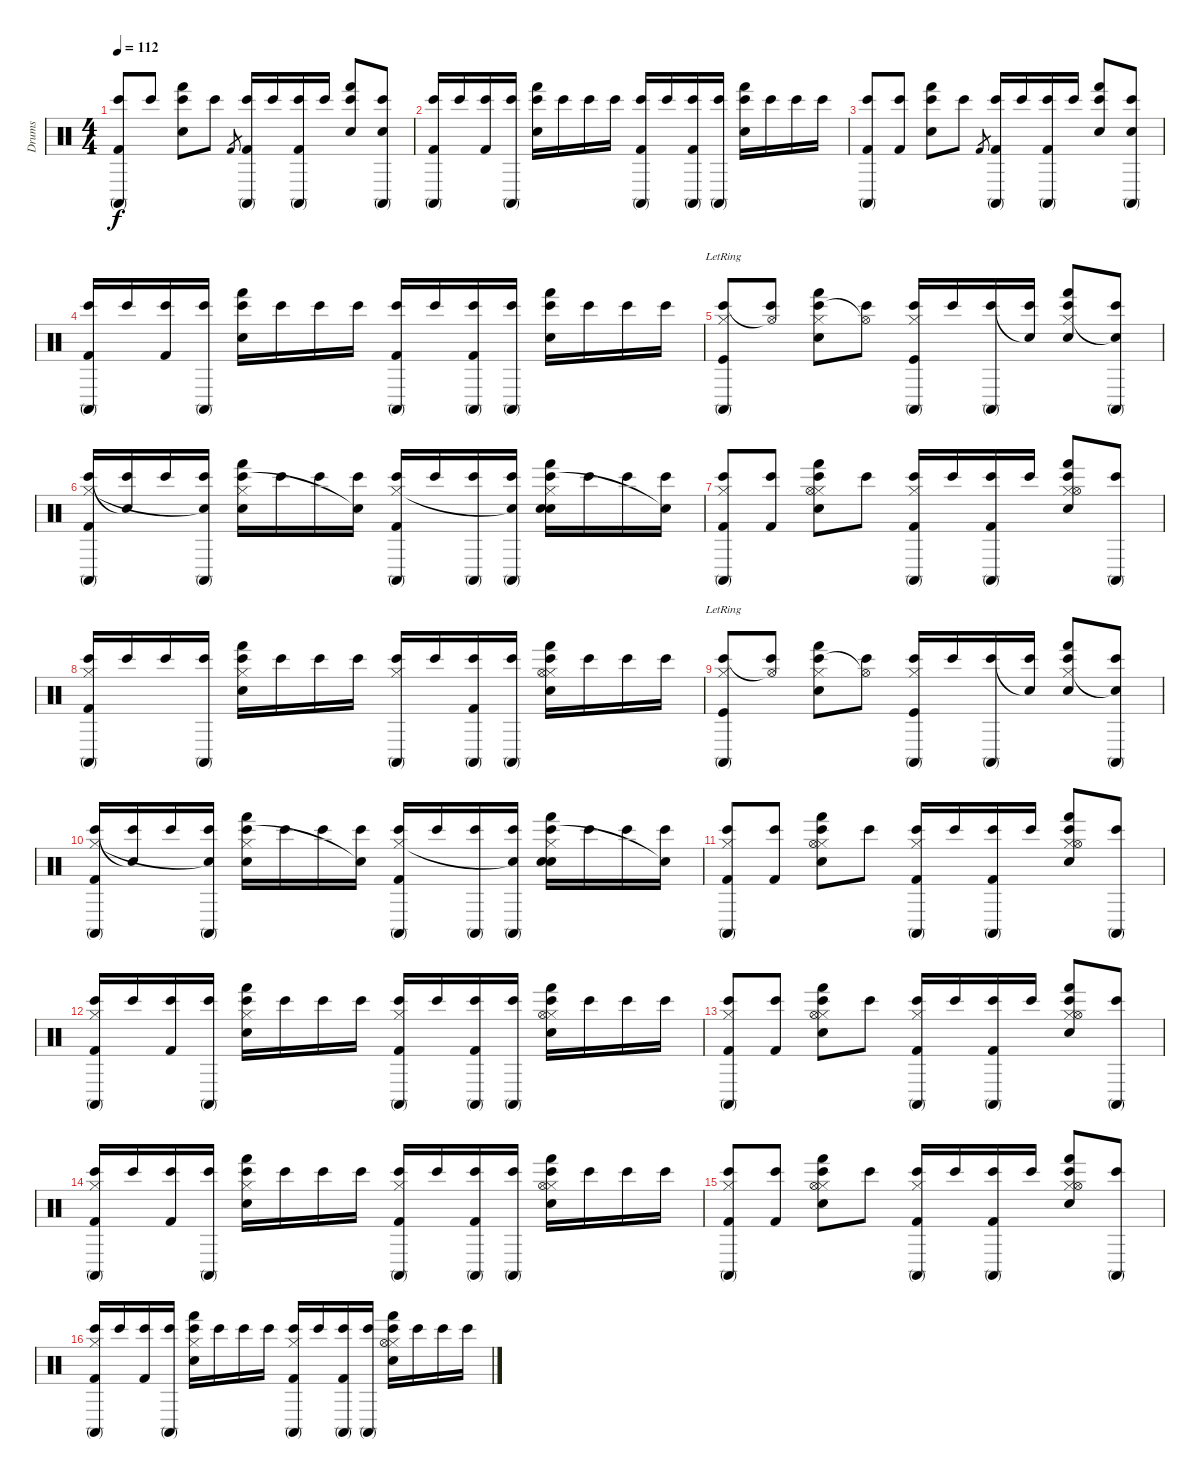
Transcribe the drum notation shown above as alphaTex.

\track ("Drums" "Drums") {instrument percussion}
\staff {score}
\articulation defaults
\ts (4 4)
\tempo 112
\clef neutral
\ks c
("Conga high (mute)" "Bongo High (hit)" "Kick (hit) 2").8{dy f} "Bongo High (hit)".8 ("Hand (hit)" "Bongo High (hit)" "Snare (hit) 2").8 "Bongo High (hit)".8 "Kick (hit) 2".8{gr} ("Conga high (mute)" "Bongo High (hit)" "Kick (hit) 2").16 "Bongo High (hit)".16 ("Conga high (mute)" "Bongo High (hit)" "Kick (hit) 2").16 "Bongo High (hit)".16 ("Hand (hit)" "Bongo High (hit)" "Snare (hit) 2").8 ("Conga high (mute)" "Bongo High (hit)" "Snare (hit) 2").8 |
("Conga high (mute)" "Bongo High (hit)" "Kick (hit) 2").16 "Bongo High (hit)".16 ("Bongo High (hit)" "Kick (hit) 2").16 ("Conga high (mute)" "Bongo High (hit)").16 ("Hand (hit)" "Bongo High (hit)" "Snare (hit) 2").16 "Bongo High (hit)".16 "Bongo High (hit)".16 "Bongo High (hit)".16 ("Conga high (mute)" "Bongo High (hit)" "Kick (hit) 2").16 "Bongo High (hit)".16 ("Conga high (mute)" "Bongo High (hit)" "Kick (hit) 2").16 ("Conga high (mute)" "Bongo High (hit)").16 ("Hand (hit)" "Bongo High (hit)" "Snare (hit) 2").16 "Bongo High (hit)".16 "Bongo High (hit)".16 "Bongo High (hit)".16 |
("Conga high (mute)" "Bongo High (hit)" "Kick (hit) 2").8 ("Bongo High (hit)" "Kick (hit) 2").8 ("Hand (hit)" "Bongo High (hit)" "Snare (hit) 2").8 "Bongo High (hit)".8 "Kick (hit) 2".8{gr} ("Conga high (mute)" "Bongo High (hit)" "Kick (hit) 2").16 "Bongo High (hit)".16 ("Conga high (mute)" "Bongo High (hit)" "Kick (hit) 2").16 "Bongo High (hit)".16 ("Hand (hit)" "Bongo High (hit)" "Snare (hit) 2").8 ("Conga high (mute)" "Bongo High (hit)" "Snare (hit) 2").8 |
("Conga high (mute)" "Bongo High (hit)" "Kick (hit) 2").16 "Bongo High (hit)".16 ("Bongo High (hit)" "Kick (hit) 2").16 ("Conga high (mute)" "Bongo High (hit)").16 ("Hand (hit)" "Bongo High (hit)" "Snare (hit) 2").16 "Bongo High (hit)".16 "Bongo High (hit)".16 "Bongo High (hit)".16 ("Conga high (mute)" "Bongo High (hit)" "Kick (hit) 2").16 "Bongo High (hit)".16 ("Conga high (mute)" "Bongo High (hit)" "Kick (hit) 2").16 ("Conga high (mute)" "Bongo High (hit)").16 ("Hand (hit)" "Bongo High (hit)" "Snare (hit) 2").16 "Bongo High (hit)".16 "Bongo High (hit)".16 "Bongo High (hit)".16 |
("Conga high (mute)" "Bongo High (hit)" "Hi-Hat (closed)"{lr} "Kick (hit)").8 ("Bongo High (hit)" "Hi-Hat (open)"{t}).8 ("Hand (hit)" "Bongo High (hit)" "Hi-Hat (closed)" "Snare (hit) 2").8 ("Bongo High (hit)" "Hi-Hat (open)"{t}).8 ("Conga high (mute)" "Bongo High (hit)" "Hi-Hat (closed)" "Kick (hit)").16 "Bongo High (hit)".16 ("Conga high (mute)" "Bongo High (hit)").16 ("Bongo High (hit)" "Snare (hit)"{t}).16 ("Hand (hit)" "Bongo High (hit)" "Hi-Hat (closed)" "Snare (hit) 2").8 ("Conga high (mute)" "Bongo High (hit)" "Snare (hit)"{t}).8 |
("Conga high (mute)" "Bongo High (hit)" "Hi-Hat (closed)" "Kick (hit) 2").16 ("Bongo High (hit)" "Snare (hit)"{t}).16 "Bongo High (hit)".16 ("Conga high (mute)" "Bongo High (hit)" "Snare (hit)"{t}).16 ("Hand (hit)" "Bongo High (hit)" "Hi-Hat (closed)" "Snare (hit) 2").16 "Bongo High (hit)".16 "Bongo High (hit)".16 ("Bongo High (hit)" "Snare (hit)"{t}).16 ("Conga high (mute)" "Bongo High (hit)" "Hi-Hat (closed)" "Kick (hit) 2").16 "Bongo High (hit)".16 ("Conga high (mute)" "Bongo High (hit)").16 ("Conga high (mute)" "Bongo High (hit)" "Snare (hit)"{t}).16 ("Hand (hit)" "Bongo High (hit)" "Hi-Hat (closed)" "Electric Snare (hit)" "Snare (hit) 2").16 "Bongo High (hit)".16 "Bongo High (hit)".16 ("Bongo High (hit)" "Snare (hit)"{t}).16 |
("Conga high (mute)" "Bongo High (hit)" "Hi-Hat (closed)" "Kick (hit) 2").8 ("Bongo High (hit)" "Kick (hit) 2").8 ("Hand (hit)" "Bongo High (hit)" "Hi-Hat (closed)" "Hi-Hat (open)" "Snare (hit) 2").8 "Bongo High (hit)".8 ("Conga high (mute)" "Bongo High (hit)" "Hi-Hat (closed)" "Kick (hit) 2").16 "Bongo High (hit)".16 ("Conga high (mute)" "Bongo High (hit)" "Kick (hit) 2").16 "Bongo High (hit)".16 ("Hand (hit)" "Bongo High (hit)" "Hi-Hat (closed)" "Hi-Hat (open)" "Snare (hit) 2").8 ("Conga high (mute)" "Bongo High (hit)").8 |
("Conga high (mute)" "Bongo High (hit)" "Hi-Hat (closed)" "Kick (hit) 2").16 "Bongo High (hit)".16 "Bongo High (hit)".16 ("Conga high (mute)" "Bongo High (hit)").16 ("Hand (hit)" "Bongo High (hit)" "Hi-Hat (closed)" "Snare (hit) 2").16 "Bongo High (hit)".16 "Bongo High (hit)".16 "Bongo High (hit)".16 ("Conga high (mute)" "Bongo High (hit)" "Hi-Hat (closed)").16 "Bongo High (hit)".16 ("Conga high (mute)" "Bongo High (hit)" "Kick (hit) 2").16 ("Conga high (mute)" "Bongo High (hit)").16 ("Hand (hit)" "Bongo High (hit)" "Hi-Hat (closed)" "Hi-Hat (open)" "Snare (hit) 2").16 "Bongo High (hit)".16 "Bongo High (hit)".16 "Bongo High (hit)".16 |
("Conga high (mute)" "Bongo High (hit)" "Hi-Hat (closed)"{lr} "Kick (hit)").8 ("Bongo High (hit)" "Hi-Hat (open)"{t}).8 ("Hand (hit)" "Bongo High (hit)" "Hi-Hat (closed)" "Snare (hit) 2").8 ("Bongo High (hit)" "Hi-Hat (open)"{t}).8 ("Conga high (mute)" "Bongo High (hit)" "Hi-Hat (closed)" "Kick (hit)").16 "Bongo High (hit)".16 ("Conga high (mute)" "Bongo High (hit)").16 ("Bongo High (hit)" "Snare (hit)"{t}).16 ("Hand (hit)" "Bongo High (hit)" "Hi-Hat (closed)" "Snare (hit) 2").8 ("Conga high (mute)" "Bongo High (hit)" "Snare (hit)"{t}).8 |
("Conga high (mute)" "Bongo High (hit)" "Hi-Hat (closed)" "Kick (hit) 2").16 ("Bongo High (hit)" "Snare (hit)"{t}).16 "Bongo High (hit)".16 ("Conga high (mute)" "Bongo High (hit)" "Snare (hit)"{t}).16 ("Hand (hit)" "Bongo High (hit)" "Hi-Hat (closed)" "Snare (hit) 2").16 "Bongo High (hit)".16 "Bongo High (hit)".16 ("Bongo High (hit)" "Snare (hit)"{t}).16 ("Conga high (mute)" "Bongo High (hit)" "Hi-Hat (closed)" "Kick (hit) 2").16 "Bongo High (hit)".16 ("Conga high (mute)" "Bongo High (hit)").16 ("Conga high (mute)" "Bongo High (hit)" "Snare (hit)"{t}).16 ("Hand (hit)" "Bongo High (hit)" "Hi-Hat (closed)" "Electric Snare (hit)" "Snare (hit) 2").16 "Bongo High (hit)".16 "Bongo High (hit)".16 ("Bongo High (hit)" "Snare (hit)"{t}).16 |
("Conga high (mute)" "Bongo High (hit)" "Hi-Hat (closed)" "Kick (hit) 2").8 ("Bongo High (hit)" "Kick (hit) 2").8 ("Hand (hit)" "Bongo High (hit)" "Hi-Hat (closed)" "Hi-Hat (open)" "Snare (hit) 2").8 "Bongo High (hit)".8 ("Conga high (mute)" "Bongo High (hit)" "Hi-Hat (closed)" "Kick (hit) 2").16 "Bongo High (hit)".16 ("Conga high (mute)" "Bongo High (hit)" "Kick (hit) 2").16 "Bongo High (hit)".16 ("Hand (hit)" "Bongo High (hit)" "Hi-Hat (closed)" "Hi-Hat (open)" "Snare (hit) 2").8 ("Conga high (mute)" "Bongo High (hit)").8 |
("Conga high (mute)" "Bongo High (hit)" "Hi-Hat (closed)" "Kick (hit) 2").16 "Bongo High (hit)".16 ("Bongo High (hit)" "Kick (hit) 2").16 ("Conga high (mute)" "Bongo High (hit)").16 ("Hand (hit)" "Bongo High (hit)" "Hi-Hat (closed)" "Snare (hit) 2").16 "Bongo High (hit)".16 "Bongo High (hit)".16 "Bongo High (hit)".16 ("Conga high (mute)" "Bongo High (hit)" "Hi-Hat (closed)" "Kick (hit) 2").16 "Bongo High (hit)".16 ("Conga high (mute)" "Bongo High (hit)" "Kick (hit) 2").16 ("Conga high (mute)" "Bongo High (hit)").16 ("Hand (hit)" "Bongo High (hit)" "Hi-Hat (closed)" "Hi-Hat (open)" "Snare (hit) 2").16 "Bongo High (hit)".16 "Bongo High (hit)".16 "Bongo High (hit)".16 |
("Conga high (mute)" "Bongo High (hit)" "Hi-Hat (closed)" "Kick (hit) 2").8 ("Bongo High (hit)" "Kick (hit) 2").8 ("Hand (hit)" "Bongo High (hit)" "Hi-Hat (closed)" "Hi-Hat (open)" "Snare (hit) 2").8 "Bongo High (hit)".8 ("Conga high (mute)" "Bongo High (hit)" "Hi-Hat (closed)" "Kick (hit) 2").16 "Bongo High (hit)".16 ("Conga high (mute)" "Bongo High (hit)" "Kick (hit) 2").16 "Bongo High (hit)".16 ("Hand (hit)" "Bongo High (hit)" "Hi-Hat (closed)" "Hi-Hat (open)" "Snare (hit) 2").8 ("Conga high (mute)" "Bongo High (hit)").8 |
("Conga high (mute)" "Bongo High (hit)" "Hi-Hat (closed)" "Kick (hit) 2").16 "Bongo High (hit)".16 ("Bongo High (hit)" "Kick (hit) 2").16 ("Conga high (mute)" "Bongo High (hit)").16 ("Hand (hit)" "Bongo High (hit)" "Hi-Hat (closed)" "Snare (hit) 2").16 "Bongo High (hit)".16 "Bongo High (hit)".16 "Bongo High (hit)".16 ("Conga high (mute)" "Bongo High (hit)" "Hi-Hat (closed)" "Kick (hit) 2").16 "Bongo High (hit)".16 ("Conga high (mute)" "Bongo High (hit)" "Kick (hit) 2").16 ("Conga high (mute)" "Bongo High (hit)").16 ("Hand (hit)" "Bongo High (hit)" "Hi-Hat (closed)" "Hi-Hat (open)" "Snare (hit) 2").16 "Bongo High (hit)".16 "Bongo High (hit)".16 "Bongo High (hit)".16 |
("Conga high (mute)" "Bongo High (hit)" "Hi-Hat (closed)" "Kick (hit) 2").8 ("Bongo High (hit)" "Kick (hit) 2").8 ("Hand (hit)" "Bongo High (hit)" "Hi-Hat (closed)" "Hi-Hat (open)" "Snare (hit) 2").8 "Bongo High (hit)".8 ("Conga high (mute)" "Bongo High (hit)" "Hi-Hat (closed)" "Kick (hit) 2").16 "Bongo High (hit)".16 ("Conga high (mute)" "Bongo High (hit)" "Kick (hit) 2").16 "Bongo High (hit)".16 ("Hand (hit)" "Bongo High (hit)" "Hi-Hat (closed)" "Hi-Hat (open)" "Snare (hit) 2").8 ("Conga high (mute)" "Bongo High (hit)").8 |
("Conga high (mute)" "Bongo High (hit)" "Hi-Hat (closed)" "Kick (hit) 2").16 "Bongo High (hit)".16 ("Bongo High (hit)" "Kick (hit) 2").16 ("Conga high (mute)" "Bongo High (hit)").16 ("Hand (hit)" "Bongo High (hit)" "Hi-Hat (closed)" "Snare (hit) 2").16 "Bongo High (hit)".16 "Bongo High (hit)".16 "Bongo High (hit)".16 ("Conga high (mute)" "Bongo High (hit)" "Hi-Hat (closed)" "Kick (hit) 2").16 "Bongo High (hit)".16 ("Conga high (mute)" "Bongo High (hit)" "Kick (hit) 2").16 ("Conga high (mute)" "Bongo High (hit)").16 ("Hand (hit)" "Bongo High (hit)" "Hi-Hat (closed)" "Hi-Hat (open)" "Snare (hit) 2").16 "Bongo High (hit)".16 "Bongo High (hit)".16 "Bongo High (hit)".16
